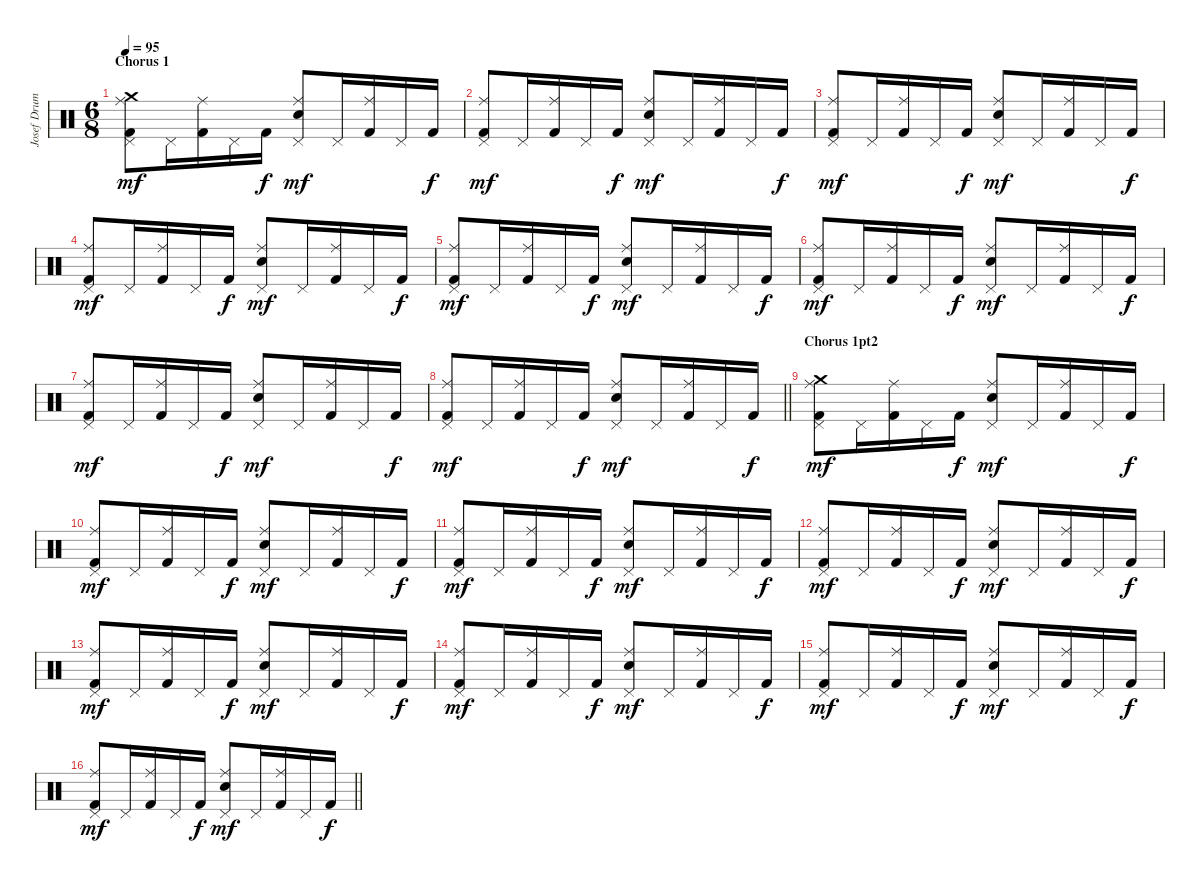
\track ("Josef Drums" "Josef Drum") {instrument percussion}
\staff {score}
\articulation defaults
\ts (6 8)
\section ("" "Chorus 1")
\tempo 95
\clef neutral
\ks c
("Crash medium (hit)" "Ride (middle)" "Kick (hit) 2" "Pedal Hi-Hat (hit)").8{dy mf} "Pedal Hi-Hat (hit)".16 ("Ride (middle)" "Kick (hit) 2").16 "Pedal Hi-Hat (hit)".16 "Kick (hit) 2".16{dy f} ("Ride (middle)" "Electric Snare (hit)" "Pedal Hi-Hat (hit)").8{dy mf} "Pedal Hi-Hat (hit)".16 ("Ride (middle)" "Kick (hit) 2").16 "Pedal Hi-Hat (hit)".16 "Kick (hit) 2".16{dy f} |
("Ride (middle)" "Kick (hit) 2" "Pedal Hi-Hat (hit)").8{dy mf} "Pedal Hi-Hat (hit)".16 ("Ride (middle)" "Kick (hit) 2").16 "Pedal Hi-Hat (hit)".16 "Kick (hit) 2".16{dy f} ("Ride (middle)" "Electric Snare (hit)" "Pedal Hi-Hat (hit)").8{dy mf} "Pedal Hi-Hat (hit)".16 ("Ride (middle)" "Kick (hit) 2").16 "Pedal Hi-Hat (hit)".16 "Kick (hit) 2".16{dy f} |
("Ride (middle)" "Kick (hit) 2" "Pedal Hi-Hat (hit)").8{dy mf} "Pedal Hi-Hat (hit)".16 ("Ride (middle)" "Kick (hit) 2").16 "Pedal Hi-Hat (hit)".16 "Kick (hit) 2".16{dy f} ("Ride (middle)" "Electric Snare (hit)" "Pedal Hi-Hat (hit)").8{dy mf} "Pedal Hi-Hat (hit)".16 ("Ride (middle)" "Kick (hit) 2").16 "Pedal Hi-Hat (hit)".16 "Kick (hit) 2".16{dy f} |
("Ride (middle)" "Kick (hit) 2" "Pedal Hi-Hat (hit)").8{dy mf} "Pedal Hi-Hat (hit)".16 ("Ride (middle)" "Kick (hit) 2").16 "Pedal Hi-Hat (hit)".16 "Kick (hit) 2".16{dy f} ("Ride (middle)" "Electric Snare (hit)" "Pedal Hi-Hat (hit)").8{dy mf} "Pedal Hi-Hat (hit)".16 ("Ride (middle)" "Kick (hit) 2").16 "Pedal Hi-Hat (hit)".16 "Kick (hit) 2".16{dy f} |
("Ride (middle)" "Kick (hit) 2" "Pedal Hi-Hat (hit)").8{dy mf} "Pedal Hi-Hat (hit)".16 ("Ride (middle)" "Kick (hit) 2").16 "Pedal Hi-Hat (hit)".16 "Kick (hit) 2".16{dy f} ("Ride (middle)" "Electric Snare (hit)" "Pedal Hi-Hat (hit)").8{dy mf} "Pedal Hi-Hat (hit)".16 ("Ride (middle)" "Kick (hit) 2").16 "Pedal Hi-Hat (hit)".16 "Kick (hit) 2".16{dy f} |
("Ride (middle)" "Kick (hit) 2" "Pedal Hi-Hat (hit)").8{dy mf} "Pedal Hi-Hat (hit)".16 ("Ride (middle)" "Kick (hit) 2").16 "Pedal Hi-Hat (hit)".16 "Kick (hit) 2".16{dy f} ("Ride (middle)" "Electric Snare (hit)" "Pedal Hi-Hat (hit)").8{dy mf} "Pedal Hi-Hat (hit)".16 ("Ride (middle)" "Kick (hit) 2").16 "Pedal Hi-Hat (hit)".16 "Kick (hit) 2".16{dy f} |
("Ride (middle)" "Kick (hit) 2" "Pedal Hi-Hat (hit)").8{dy mf} "Pedal Hi-Hat (hit)".16 ("Ride (middle)" "Kick (hit) 2").16 "Pedal Hi-Hat (hit)".16 "Kick (hit) 2".16{dy f} ("Ride (middle)" "Electric Snare (hit)" "Pedal Hi-Hat (hit)").8{dy mf} "Pedal Hi-Hat (hit)".16 ("Ride (middle)" "Kick (hit) 2").16 "Pedal Hi-Hat (hit)".16 "Kick (hit) 2".16{dy f} |
\barLineRight lightlight
("Ride (middle)" "Kick (hit) 2" "Pedal Hi-Hat (hit)").8{dy mf} "Pedal Hi-Hat (hit)".16 ("Ride (middle)" "Kick (hit) 2").16 "Pedal Hi-Hat (hit)".16 "Kick (hit) 2".16{dy f} ("Ride (middle)" "Electric Snare (hit)" "Pedal Hi-Hat (hit)").8{dy mf} "Pedal Hi-Hat (hit)".16 ("Ride (middle)" "Kick (hit) 2").16 "Pedal Hi-Hat (hit)".16 "Kick (hit) 2".16{dy f} |
\section ("" "Chorus 1pt2")
("Crash medium (hit)" "Ride (middle)" "Kick (hit) 2" "Pedal Hi-Hat (hit)").8{dy mf} "Pedal Hi-Hat (hit)".16 ("Ride (middle)" "Kick (hit) 2").16 "Pedal Hi-Hat (hit)".16 "Kick (hit) 2".16{dy f} ("Ride (middle)" "Electric Snare (hit)" "Pedal Hi-Hat (hit)").8{dy mf} "Pedal Hi-Hat (hit)".16 ("Ride (middle)" "Kick (hit) 2").16 "Pedal Hi-Hat (hit)".16 "Kick (hit) 2".16{dy f} |
("Ride (middle)" "Kick (hit) 2" "Pedal Hi-Hat (hit)").8{dy mf} "Pedal Hi-Hat (hit)".16 ("Ride (middle)" "Kick (hit) 2").16 "Pedal Hi-Hat (hit)".16 "Kick (hit) 2".16{dy f} ("Ride (middle)" "Electric Snare (hit)" "Pedal Hi-Hat (hit)").8{dy mf} "Pedal Hi-Hat (hit)".16 ("Ride (middle)" "Kick (hit) 2").16 "Pedal Hi-Hat (hit)".16 "Kick (hit) 2".16{dy f} |
("Ride (middle)" "Kick (hit) 2" "Pedal Hi-Hat (hit)").8{dy mf} "Pedal Hi-Hat (hit)".16 ("Ride (middle)" "Kick (hit) 2").16 "Pedal Hi-Hat (hit)".16 "Kick (hit) 2".16{dy f} ("Ride (middle)" "Electric Snare (hit)" "Pedal Hi-Hat (hit)").8{dy mf} "Pedal Hi-Hat (hit)".16 ("Ride (middle)" "Kick (hit) 2").16 "Pedal Hi-Hat (hit)".16 "Kick (hit) 2".16{dy f} |
("Ride (middle)" "Kick (hit) 2" "Pedal Hi-Hat (hit)").8{dy mf} "Pedal Hi-Hat (hit)".16 ("Ride (middle)" "Kick (hit) 2").16 "Pedal Hi-Hat (hit)".16 "Kick (hit) 2".16{dy f} ("Ride (middle)" "Electric Snare (hit)" "Pedal Hi-Hat (hit)").8{dy mf} "Pedal Hi-Hat (hit)".16 ("Ride (middle)" "Kick (hit) 2").16 "Pedal Hi-Hat (hit)".16 "Kick (hit) 2".16{dy f} |
("Ride (middle)" "Kick (hit) 2" "Pedal Hi-Hat (hit)").8{dy mf} "Pedal Hi-Hat (hit)".16 ("Ride (middle)" "Kick (hit) 2").16 "Pedal Hi-Hat (hit)".16 "Kick (hit) 2".16{dy f} ("Ride (middle)" "Electric Snare (hit)" "Pedal Hi-Hat (hit)").8{dy mf} "Pedal Hi-Hat (hit)".16 ("Ride (middle)" "Kick (hit) 2").16 "Pedal Hi-Hat (hit)".16 "Kick (hit) 2".16{dy f} |
("Ride (middle)" "Kick (hit) 2" "Pedal Hi-Hat (hit)").8{dy mf} "Pedal Hi-Hat (hit)".16 ("Ride (middle)" "Kick (hit) 2").16 "Pedal Hi-Hat (hit)".16 "Kick (hit) 2".16{dy f} ("Ride (middle)" "Electric Snare (hit)" "Pedal Hi-Hat (hit)").8{dy mf} "Pedal Hi-Hat (hit)".16 ("Ride (middle)" "Kick (hit) 2").16 "Pedal Hi-Hat (hit)".16 "Kick (hit) 2".16{dy f} |
("Ride (middle)" "Kick (hit) 2" "Pedal Hi-Hat (hit)").8{dy mf} "Pedal Hi-Hat (hit)".16 ("Ride (middle)" "Kick (hit) 2").16 "Pedal Hi-Hat (hit)".16 "Kick (hit) 2".16{dy f} ("Ride (middle)" "Electric Snare (hit)" "Pedal Hi-Hat (hit)").8{dy mf} "Pedal Hi-Hat (hit)".16 ("Ride (middle)" "Kick (hit) 2").16 "Pedal Hi-Hat (hit)".16 "Kick (hit) 2".16{dy f} |
\barLineRight lightlight
("Ride (middle)" "Kick (hit) 2" "Pedal Hi-Hat (hit)").8{dy mf} "Pedal Hi-Hat (hit)".16 ("Ride (middle)" "Kick (hit) 2").16 "Pedal Hi-Hat (hit)".16 "Kick (hit) 2".16{dy f} ("Ride (middle)" "Electric Snare (hit)" "Pedal Hi-Hat (hit)").8{dy mf} "Pedal Hi-Hat (hit)".16 ("Ride (middle)" "Kick (hit) 2").16 "Pedal Hi-Hat (hit)".16 "Kick (hit) 2".16{dy f}
